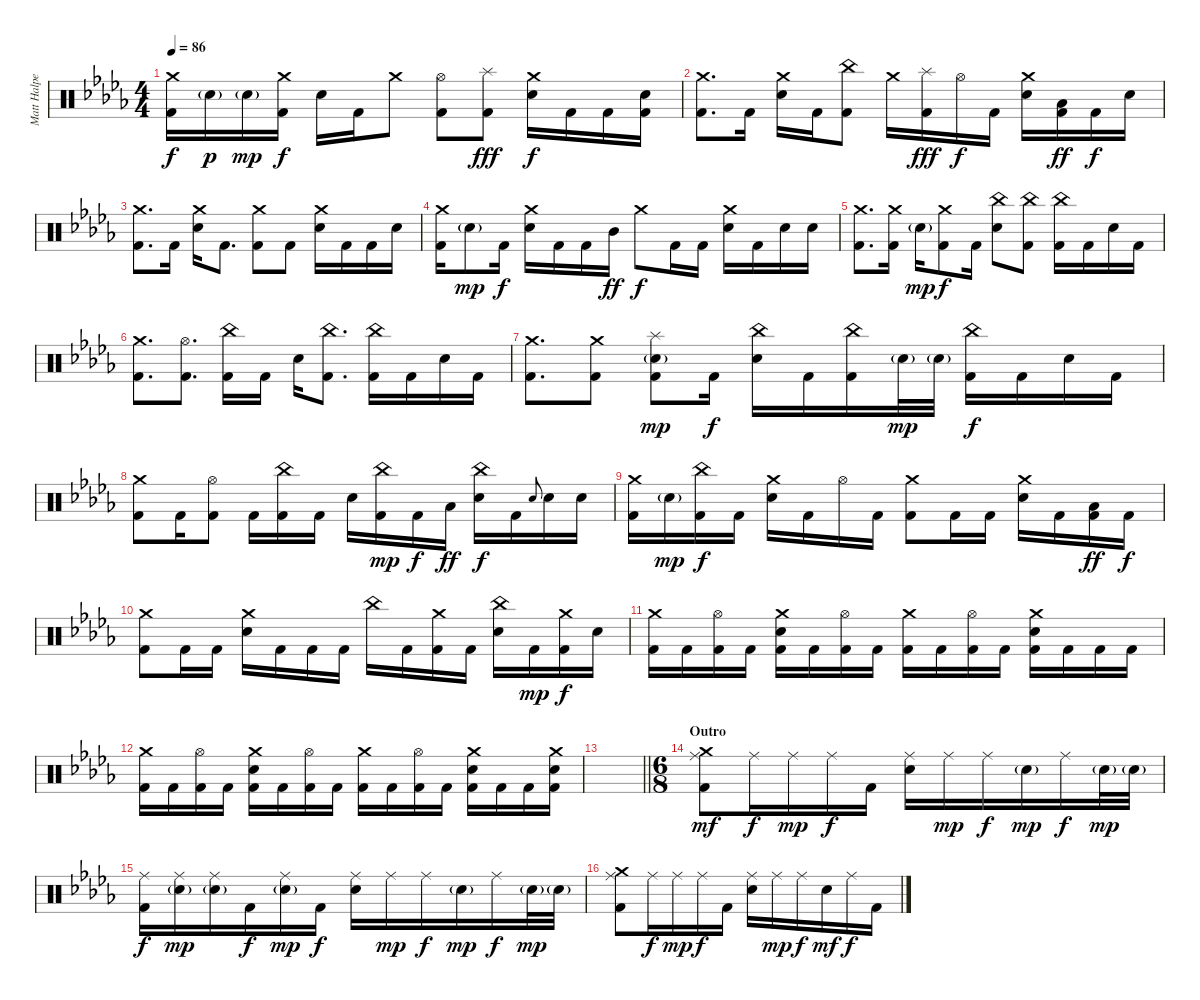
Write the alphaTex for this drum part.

\track ("Matt Halpern - Drums" "Matt Halpe") {instrument percussion}
\staff {score}
\articulation defaults
\ts (4 4)
\tempo 86
\clef neutral
\ks bbminor
("Crash medium (hit)" "Kick (hit) 2").16{dy f} "Snare (hit) 2"{g}.16{dy p} "Snare (hit) 2"{g}.16{dy mp} ("Crash medium (hit)" "Kick (hit) 2").16{dy f} "Snare (hit) 2".16 "Kick (hit) 2".16 "Crash medium (hit)".8 ("Hi-Hat (open)" "Kick (hit) 2").8 ("Splash (hit)" "Kick (hit) 2").8{dy fff} ("Crash medium (hit)" "Snare (hit) 2").16{dy f} "Kick (hit) 2".16 "Kick (hit) 2".16 ("Snare (hit) 2" "Kick (hit) 2").16 |
("Crash medium (hit)" "Kick (hit) 2").8{d} "Kick (hit) 2".16 ("Crash medium (hit)" "Snare (hit) 2").16 "Kick (hit) 2".16 ("China (hit)" "Kick (hit) 2").8 "Crash medium (hit)".16 ("Splash (hit)" "Kick (hit) 2").16{dy fff} "Hi-Hat (open)".16{dy f} "Kick (hit) 2".16 ("Crash medium (hit)" "Snare (hit) 2").16 ("Low Floor Tom (hit)" "Kick (hit) 2").16{dy ff} "Kick (hit) 2".16{dy f} "Snare (hit) 2".16 |
("Crash medium (hit)" "Kick (hit) 2").8{d} "Kick (hit) 2".16 ("Crash medium (hit)" "Snare (hit) 2").16 "Kick (hit) 2".8{d} ("Crash medium (hit)" "Kick (hit) 2").8 "Kick (hit) 2".8 ("Crash medium (hit)" "Snare (hit) 2").16 "Kick (hit) 2".16 "Kick (hit) 2".16 "Snare (hit) 2".16 |
("Crash medium (hit)" "Kick (hit) 2").16 "Snare (hit) 2"{g}.8{dy mp} "Kick (hit) 2".16{dy f} ("Crash medium (hit)" "Snare (hit) 2").16 "Kick (hit) 2".16 "Kick (hit) 2".16 "Mid Tom (hit)".16{dy ff} "Crash medium (hit)".8{dy f} "Kick (hit) 2".16 "Kick (hit) 2".16 ("Crash medium (hit)" "Snare (hit) 2").16 "Kick (hit) 2".16 "Snare (hit) 2".16 "Snare (hit) 2".16 |
("Crash medium (hit)" "Kick (hit) 2").8{d} ("Crash medium (hit)" "Kick (hit) 2").16 "Snare (hit) 2"{g}.16{dy mp} ("Crash medium (hit)" "Kick (hit) 2").8{dy f} "Kick (hit) 2".16 ("China (hit)" "Snare (hit) 2").8 ("China (hit)" "Kick (hit) 2").8 ("China (hit)" "Kick (hit) 2").16 "Kick (hit) 2".16 "Snare (hit) 2".16 "Kick (hit) 2".16 |
("Crash medium (hit)" "Kick (hit) 2").8{d} ("Hi-Hat (open)" "Kick (hit) 2").8{d} ("China (hit)" "Kick (hit) 2").16 "Kick (hit) 2".16 "Snare (hit) 2".16 ("China (hit)" "Kick (hit) 2").8{d} ("China (hit)" "Kick (hit) 2").16 "Kick (hit) 2".16 "Snare (hit) 2".16 "Kick (hit) 2".16 |
("Crash medium (hit)" "Kick (hit) 2").8{d} ("Crash medium (hit)" "Kick (hit) 2").8 ("Splash (hit)" "Snare (hit) 2"{g} "Kick (hit) 2").8{dy mp} "Kick (hit) 2".16{dy f} ("China (hit)" "Snare (hit) 2").16 "Kick (hit) 2".16 ("China (hit)" "Kick (hit) 2").16 "Snare (hit) 2"{g}.32{dy mp} "Snare (hit) 2"{g}.32 ("China (hit)" "Kick (hit) 2").16{dy f} "Kick (hit) 2".16 "Snare (hit) 2".16 "Kick (hit) 2".16 |
("Crash medium (hit)" "Kick (hit) 2").8 "Kick (hit) 2".16 ("Hi-Hat (open)" "Kick (hit) 2").8 "Kick (hit) 2".16 ("China (hit)" "Kick (hit) 2").16 "Kick (hit) 2".16 "Snare (hit) 2".16 ("China (hit)" "Kick (hit) 2").16{dy mp} "Kick (hit) 2".16{dy f} "Low Floor Tom (hit)".16{dy ff} ("China (hit)" "Snare (hit) 2").16{dy f} "Kick (hit) 2".16 "Snare (hit) 2".8{gr onbeat} "Snare (hit) 2".16 "Snare (hit) 2".16 |
("Crash medium (hit)" "Kick (hit) 2").16 "Snare (hit) 2"{g}.16{dy mp} ("China (hit)" "Kick (hit) 2").16{dy f} "Kick (hit) 2".16 ("Crash medium (hit)" "Snare (hit) 2").16 "Kick (hit) 2".16 "Hi-Hat (open)".16 "Kick (hit) 2".16 ("Crash medium (hit)" "Kick (hit) 2").8 "Kick (hit) 2".16 "Kick (hit) 2".16 ("Crash medium (hit)" "Snare (hit) 2").16 "Kick (hit) 2".16 ("Low Floor Tom (hit)" "Kick (hit) 2").16{dy ff} "Kick (hit) 2".16{dy f} |
("Crash medium (hit)" "Kick (hit) 2").8 "Kick (hit) 2".16 "Kick (hit) 2".16 ("Crash medium (hit)" "Snare (hit) 2").16 "Kick (hit) 2".16 "Kick (hit) 2".16 "Kick (hit) 2".16 "China (hit)".16 "Kick (hit) 2".16 ("Crash medium (hit)" "Kick (hit) 2").16 "Kick (hit) 2".16 ("China (hit)" "Snare (hit) 2").16 "Kick (hit) 2".16{dy mp} ("Crash medium (hit)" "Kick (hit) 2").16{dy f} "Snare (hit) 2".16 |
("Crash medium (hit)" "Kick (hit) 2").16 "Kick (hit) 2".16 ("Hi-Hat (open)" "Kick (hit) 2").16 "Kick (hit) 2".16 ("Crash medium (hit)" "Snare (hit) 2" "Kick (hit) 2").16 "Kick (hit) 2".16 ("Hi-Hat (open)" "Kick (hit) 2").16 "Kick (hit) 2".16 ("Crash medium (hit)" "Kick (hit) 2").16 "Kick (hit) 2".16 ("Hi-Hat (open)" "Kick (hit) 2").16 "Kick (hit) 2".16 ("Crash medium (hit)" "Snare (hit) 2" "Kick (hit) 2").16 "Kick (hit) 2".16 "Kick (hit) 2".16 "Kick (hit) 2".16 |
("Crash medium (hit)" "Kick (hit) 2").16 "Kick (hit) 2".16 ("Hi-Hat (open)" "Kick (hit) 2").16 "Kick (hit) 2".16 ("Crash medium (hit)" "Snare (hit) 2" "Kick (hit) 2").16 "Kick (hit) 2".16 ("Hi-Hat (open)" "Kick (hit) 2").16 "Kick (hit) 2".16 ("Crash medium (hit)" "Kick (hit) 2").16 "Kick (hit) 2".16 ("Hi-Hat (open)" "Kick (hit) 2").16 "Kick (hit) 2".16 ("Crash medium (hit)" "Snare (hit) 2" "Kick (hit) 2").16 "Kick (hit) 2".16 "Kick (hit) 2".16 ("Crash medium (hit)" "Snare (hit) 2" "Kick (hit) 2").16 |
\barLineRight lightlight
|
\ts (6 8)
\section ("" "Outro")
("Ride (middle)" "Crash medium (hit)" "Kick (hit) 2").8{dy mf volume 15} "Ride (middle)".16{dy f} "Ride (middle)".16{dy mp} "Ride (middle)".16{dy f} "Kick (hit) 2".16 ("Ride (middle)" "Snare (hit) 2").16 "Ride (middle)".16{dy mp} "Ride (middle)".16{dy f} "Snare (hit) 2"{g}.16{dy mp} "Ride (middle)".16{dy f} "Snare (hit) 2"{g}.32{dy mp} "Snare (hit) 2"{g}.32 |
("Ride (middle)" "Kick (hit) 2").16{dy f} ("Ride (middle)" "Snare (hit) 2"{g}).16{dy mp} ("Ride (middle)" "Snare (hit) 2"{g}).16 "Kick (hit) 2".16{dy f} ("Ride (middle)" "Snare (hit) 2"{g}).16{dy mp} "Kick (hit) 2".16{dy f} ("Ride (middle)" "Snare (hit) 2").16 "Ride (middle)".16{dy mp} "Ride (middle)".16{dy f} "Snare (hit) 2"{g}.16{dy mp} "Ride (middle)".16{dy f} "Snare (hit) 2"{g}.32{dy mp} "Snare (hit) 2"{g}.32 |
("Ride (middle)" "Crash medium (hit)" "Kick (hit) 2").8 "Ride (middle)".16{dy f} "Ride (middle)".16{dy mp} "Ride (middle)".16{dy f} "Kick (hit) 2".16 ("Ride (middle)" "Snare (hit) 2").16 "Ride (middle)".16{dy mp} "Ride (middle)".16{dy f} "Snare (hit) 2".16{dy mf} "Ride (middle)".16{dy f} "Kick (hit) 2".16
